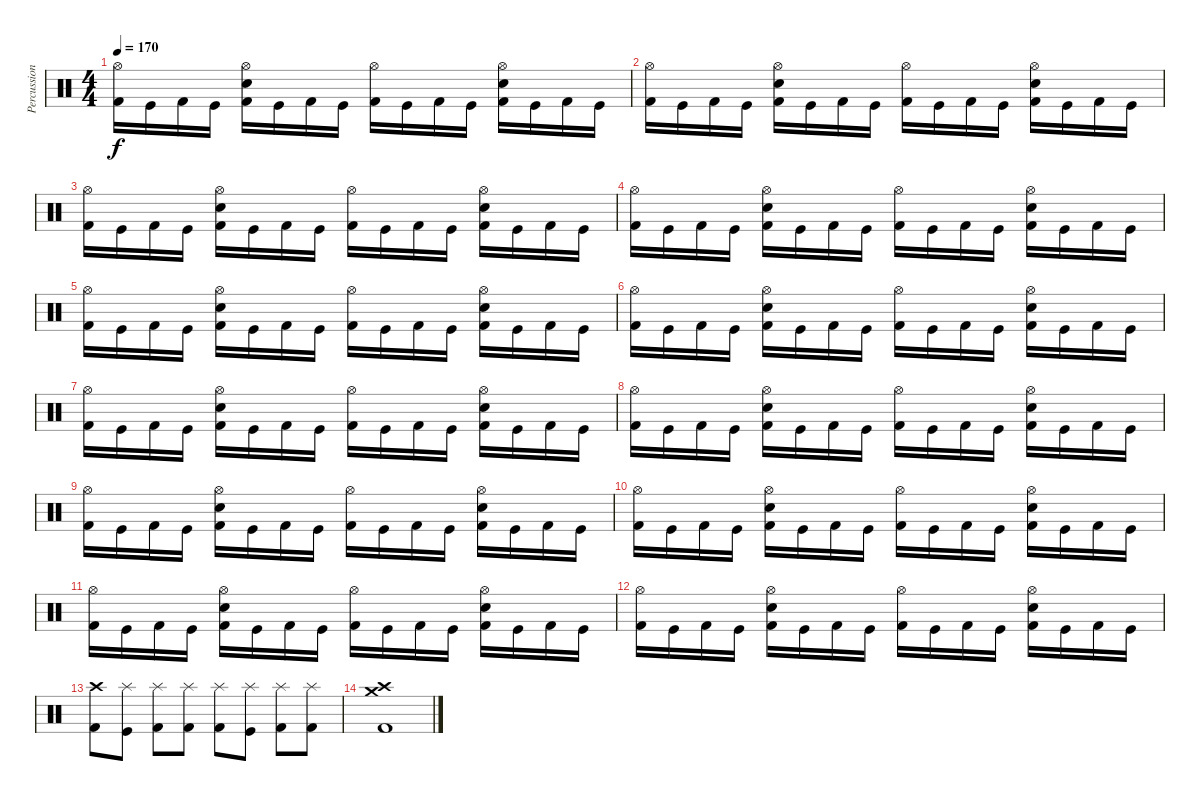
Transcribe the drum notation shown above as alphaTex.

\track ("Percussions" "Percussion") {instrument percussion}
\staff {score}
\articulation defaults
\ts (4 4)
\tempo 170
\clef neutral
\ks c
("Hi-Hat (open)" "Kick (hit) 2").16{dy f} "Kick (hit)".16 "Kick (hit) 2".16 "Kick (hit)".16 ("Hi-Hat (open)" "Electric Snare (hit)" "Kick (hit) 2").16 "Kick (hit)".16 "Kick (hit) 2".16 "Kick (hit)".16 ("Hi-Hat (open)" "Kick (hit) 2").16 "Kick (hit)".16 "Kick (hit) 2".16 "Kick (hit)".16 ("Hi-Hat (open)" "Electric Snare (hit)" "Kick (hit) 2").16 "Kick (hit)".16 "Kick (hit) 2".16 "Kick (hit)".16 |
("Hi-Hat (open)" "Kick (hit) 2").16 "Kick (hit)".16 "Kick (hit) 2".16 "Kick (hit)".16 ("Hi-Hat (open)" "Electric Snare (hit)" "Kick (hit) 2").16 "Kick (hit)".16 "Kick (hit) 2".16 "Kick (hit)".16 ("Hi-Hat (open)" "Kick (hit) 2").16 "Kick (hit)".16 "Kick (hit) 2".16 "Kick (hit)".16 ("Hi-Hat (open)" "Electric Snare (hit)" "Kick (hit) 2").16 "Kick (hit)".16 "Kick (hit) 2".16 "Kick (hit)".16 |
("Hi-Hat (open)" "Kick (hit) 2").16 "Kick (hit)".16 "Kick (hit) 2".16 "Kick (hit)".16 ("Hi-Hat (open)" "Electric Snare (hit)" "Kick (hit) 2").16 "Kick (hit)".16 "Kick (hit) 2".16 "Kick (hit)".16 ("Hi-Hat (open)" "Kick (hit) 2").16 "Kick (hit)".16 "Kick (hit) 2".16 "Kick (hit)".16 ("Hi-Hat (open)" "Electric Snare (hit)" "Kick (hit) 2").16 "Kick (hit)".16 "Kick (hit) 2".16 "Kick (hit)".16 |
("Hi-Hat (open)" "Kick (hit) 2").16 "Kick (hit)".16 "Kick (hit) 2".16 "Kick (hit)".16 ("Hi-Hat (open)" "Electric Snare (hit)" "Kick (hit) 2").16 "Kick (hit)".16 "Kick (hit) 2".16 "Kick (hit)".16 ("Hi-Hat (open)" "Kick (hit) 2").16 "Kick (hit)".16 "Kick (hit) 2".16 "Kick (hit)".16 ("Hi-Hat (open)" "Electric Snare (hit)" "Kick (hit) 2").16 "Kick (hit)".16 "Kick (hit) 2".16 "Kick (hit)".16 |
("Hi-Hat (open)" "Kick (hit) 2").16 "Kick (hit)".16 "Kick (hit) 2".16 "Kick (hit)".16 ("Hi-Hat (open)" "Electric Snare (hit)" "Kick (hit) 2").16 "Kick (hit)".16 "Kick (hit) 2".16 "Kick (hit)".16 ("Hi-Hat (open)" "Kick (hit) 2").16 "Kick (hit)".16 "Kick (hit) 2".16 "Kick (hit)".16 ("Hi-Hat (open)" "Electric Snare (hit)" "Kick (hit) 2").16 "Kick (hit)".16 "Kick (hit) 2".16 "Kick (hit)".16 |
("Hi-Hat (open)" "Kick (hit) 2").16 "Kick (hit)".16 "Kick (hit) 2".16 "Kick (hit)".16 ("Hi-Hat (open)" "Electric Snare (hit)" "Kick (hit) 2").16 "Kick (hit)".16 "Kick (hit) 2".16 "Kick (hit)".16 ("Hi-Hat (open)" "Kick (hit) 2").16 "Kick (hit)".16 "Kick (hit) 2".16 "Kick (hit)".16 ("Hi-Hat (open)" "Electric Snare (hit)" "Kick (hit) 2").16 "Kick (hit)".16 "Kick (hit) 2".16 "Kick (hit)".16 |
("Hi-Hat (open)" "Kick (hit) 2").16 "Kick (hit)".16 "Kick (hit) 2".16 "Kick (hit)".16 ("Hi-Hat (open)" "Electric Snare (hit)" "Kick (hit) 2").16 "Kick (hit)".16 "Kick (hit) 2".16 "Kick (hit)".16 ("Hi-Hat (open)" "Kick (hit) 2").16 "Kick (hit)".16 "Kick (hit) 2".16 "Kick (hit)".16 ("Hi-Hat (open)" "Electric Snare (hit)" "Kick (hit) 2").16 "Kick (hit)".16 "Kick (hit) 2".16 "Kick (hit)".16 |
("Hi-Hat (open)" "Kick (hit) 2").16 "Kick (hit)".16 "Kick (hit) 2".16 "Kick (hit)".16 ("Hi-Hat (open)" "Electric Snare (hit)" "Kick (hit) 2").16 "Kick (hit)".16 "Kick (hit) 2".16 "Kick (hit)".16 ("Hi-Hat (open)" "Kick (hit) 2").16 "Kick (hit)".16 "Kick (hit) 2".16 "Kick (hit)".16 ("Hi-Hat (open)" "Electric Snare (hit)" "Kick (hit) 2").16 "Kick (hit)".16 "Kick (hit) 2".16 "Kick (hit)".16 |
("Hi-Hat (open)" "Kick (hit) 2").16 "Kick (hit)".16 "Kick (hit) 2".16 "Kick (hit)".16 ("Hi-Hat (open)" "Electric Snare (hit)" "Kick (hit) 2").16 "Kick (hit)".16 "Kick (hit) 2".16 "Kick (hit)".16 ("Hi-Hat (open)" "Kick (hit) 2").16 "Kick (hit)".16 "Kick (hit) 2".16 "Kick (hit)".16 ("Hi-Hat (open)" "Electric Snare (hit)" "Kick (hit) 2").16 "Kick (hit)".16 "Kick (hit) 2".16 "Kick (hit)".16 |
("Hi-Hat (open)" "Kick (hit) 2").16 "Kick (hit)".16 "Kick (hit) 2".16 "Kick (hit)".16 ("Hi-Hat (open)" "Electric Snare (hit)" "Kick (hit) 2").16 "Kick (hit)".16 "Kick (hit) 2".16 "Kick (hit)".16 ("Hi-Hat (open)" "Kick (hit) 2").16 "Kick (hit)".16 "Kick (hit) 2".16 "Kick (hit)".16 ("Hi-Hat (open)" "Electric Snare (hit)" "Kick (hit) 2").16 "Kick (hit)".16 "Kick (hit) 2".16 "Kick (hit)".16 |
("Hi-Hat (open)" "Kick (hit) 2").16 "Kick (hit)".16 "Kick (hit) 2".16 "Kick (hit)".16 ("Hi-Hat (open)" "Electric Snare (hit)" "Kick (hit) 2").16 "Kick (hit)".16 "Kick (hit) 2".16 "Kick (hit)".16 ("Hi-Hat (open)" "Kick (hit) 2").16 "Kick (hit)".16 "Kick (hit) 2".16 "Kick (hit)".16 ("Hi-Hat (open)" "Electric Snare (hit)" "Kick (hit) 2").16 "Kick (hit)".16 "Kick (hit) 2".16 "Kick (hit)".16 |
("Hi-Hat (open)" "Kick (hit) 2").16 "Kick (hit)".16 "Kick (hit) 2".16 "Kick (hit)".16 ("Hi-Hat (open)" "Electric Snare (hit)" "Kick (hit) 2").16 "Kick (hit)".16 "Kick (hit) 2".16 "Kick (hit)".16 ("Hi-Hat (open)" "Kick (hit) 2").16 "Kick (hit)".16 "Kick (hit) 2".16 "Kick (hit)".16 ("Hi-Hat (open)" "Electric Snare (hit)" "Kick (hit) 2").16 "Kick (hit)".16 "Kick (hit) 2".16 "Kick (hit)".16 |
("Crash high (hit)" "Kick (hit) 2").8 ("Splash (hit)" "Kick (hit)").8 ("Splash (hit)" "Kick (hit) 2").8 ("Splash (hit)" "Kick (hit) 2").8 ("Splash (hit)" "Kick (hit) 2").8 ("Splash (hit)" "Kick (hit)").8 ("Splash (hit)" "Kick (hit) 2").8 ("Splash (hit)" "Kick (hit) 2").8 |
("Crash medium (hit)" "Crash high (hit)" "Kick (hit) 2").1
